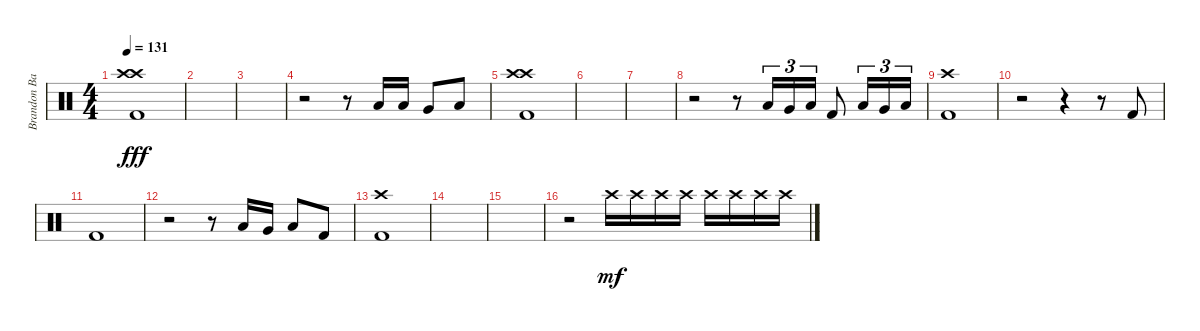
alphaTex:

\track ("Brandon Barnes - Drums" "Brandon Ba") {instrument percussion}
\staff {score}
\articulation defaults
\ts (4 4)
\tempo 131
\clef neutral
\ks c
("Crash high (hit)" "Crash high (hit)" "Kick (hit) 2").1{dy fff volume 9} |
|
|
r.2 r.8 "Low Tom (hit)".16 "Low Tom (hit)".16 "Very Low Tom (hit)".8 "Low Floor Tom (hit)".8 |
("Crash high (hit)" "Crash high (hit)" "Kick (hit) 2").1{volume 9} |
|
|
r.2 r.8 "Low Tom (hit)".16{tu (3 2)} "Very Low Tom (hit)".16{tu (3 2)} "Low Floor Tom (hit)".16{tu (3 2)} "Kick (hit) 2".8 "Low Tom (hit)".16{tu (3 2)} "Very Low Tom (hit)".16{tu (3 2)} "Low Floor Tom (hit)".16{tu (3 2)} |
("Crash high (hit)" "Kick (hit) 2").1 |
r.2 r.4 r.8 "Kick (hit) 2".8 |
"Kick (hit) 2".1 |
r.2 r.8 "Low Tom (hit)".16 "Very Low Tom (hit)".16 "Low Floor Tom (hit)".8 "Kick (hit) 2".8 |
("Kick (hit) 2" "Crash high (hit)").1 |
|
|
r.2{volume 0} "Crash high (hit)".16{dy mf volume 11} "Crash high (hit)".16 "Crash high (hit)".16 "Crash high (hit)".16 "Crash high (hit)".16 "Crash high (hit)".16 "Crash high (hit)".16 "Crash high (hit)".16
